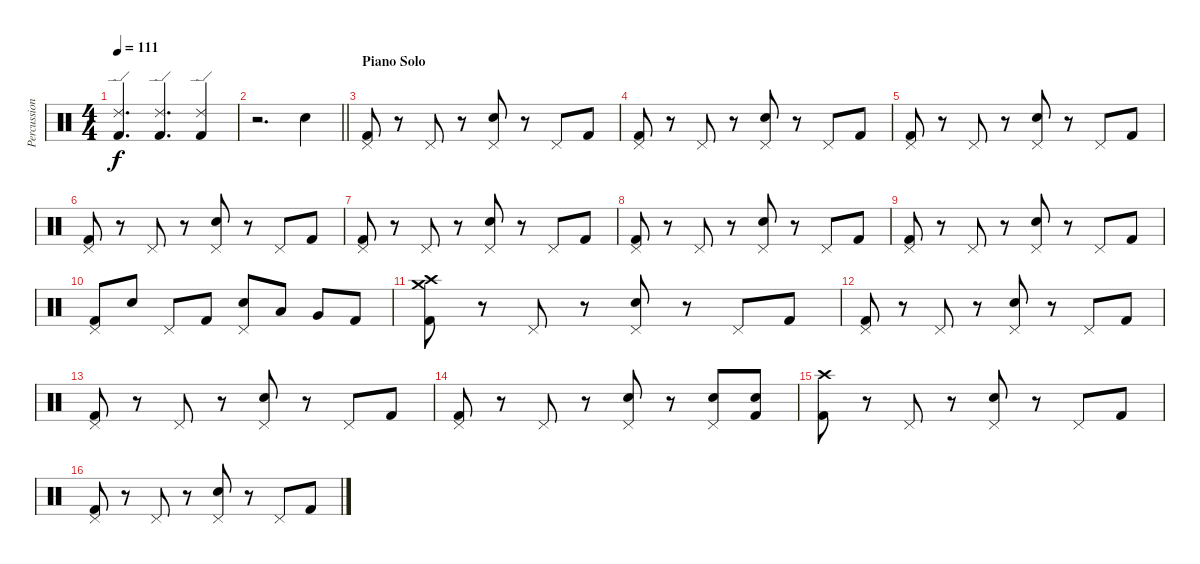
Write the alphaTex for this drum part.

\track ("Percussion" "Percussion") {instrument percussion}
\staff {score}
\articulation defaults
\ts (4 4)
\tempo 111
\clef neutral
\ks c
("Ride (edge) 2" "Kick (hit) 2").4{d dy f} ("Ride (edge) 2" "Kick (hit) 2").4{d} ("Ride (edge) 2" "Kick (hit) 2").4 |
\barLineRight lightlight
r.2{d} "Snare (hit) 2".4 |
\section ("" "Piano Solo")
("Pedal Hi-Hat (hit)" "Kick (hit) 2").8 r.8 "Pedal Hi-Hat (hit)".8 r.8 ("Pedal Hi-Hat (hit)" "Snare (hit) 2").8 r.8 "Pedal Hi-Hat (hit)".8 "Kick (hit) 2".8 |
("Pedal Hi-Hat (hit)" "Kick (hit) 2").8 r.8 "Pedal Hi-Hat (hit)".8 r.8 ("Pedal Hi-Hat (hit)" "Snare (hit) 2").8 r.8 "Pedal Hi-Hat (hit)".8 "Kick (hit) 2".8 |
("Pedal Hi-Hat (hit)" "Kick (hit) 2").8 r.8 "Pedal Hi-Hat (hit)".8 r.8 ("Pedal Hi-Hat (hit)" "Snare (hit) 2").8 r.8 "Pedal Hi-Hat (hit)".8 "Kick (hit) 2".8 |
("Pedal Hi-Hat (hit)" "Kick (hit) 2").8 r.8 "Pedal Hi-Hat (hit)".8 r.8 ("Pedal Hi-Hat (hit)" "Snare (hit) 2").8 r.8 "Pedal Hi-Hat (hit)".8 "Kick (hit) 2".8 |
("Pedal Hi-Hat (hit)" "Kick (hit) 2").8 r.8 "Pedal Hi-Hat (hit)".8 r.8 ("Pedal Hi-Hat (hit)" "Snare (hit) 2").8 r.8 "Pedal Hi-Hat (hit)".8 "Kick (hit) 2".8 |
("Pedal Hi-Hat (hit)" "Kick (hit) 2").8 r.8 "Pedal Hi-Hat (hit)".8 r.8 ("Pedal Hi-Hat (hit)" "Snare (hit) 2").8 r.8 "Pedal Hi-Hat (hit)".8 "Kick (hit) 2".8 |
("Pedal Hi-Hat (hit)" "Kick (hit) 2").8 r.8 "Pedal Hi-Hat (hit)".8 r.8 ("Pedal Hi-Hat (hit)" "Snare (hit) 2").8 r.8 "Pedal Hi-Hat (hit)".8 "Kick (hit) 2".8 |
("Pedal Hi-Hat (hit)" "Kick (hit) 2").8 "Snare (hit) 2".8 "Pedal Hi-Hat (hit)".8 "Kick (hit) 2".8 ("Pedal Hi-Hat (hit)" "Snare (hit) 2").8 "Low Tom (hit)".8 "Very Low Tom (hit)".8 "Kick (hit) 2".8 |
("Crash high (hit)" "Crash medium (hit)" "Kick (hit) 2").8 r.8 "Pedal Hi-Hat (hit)".8 r.8 ("Pedal Hi-Hat (hit)" "Snare (hit) 2").8 r.8 "Pedal Hi-Hat (hit)".8 "Kick (hit) 2".8 |
("Pedal Hi-Hat (hit)" "Kick (hit) 2").8 r.8 "Pedal Hi-Hat (hit)".8 r.8 ("Pedal Hi-Hat (hit)" "Snare (hit) 2").8 r.8 "Pedal Hi-Hat (hit)".8 "Kick (hit) 2".8 |
("Pedal Hi-Hat (hit)" "Kick (hit) 2").8 r.8 "Pedal Hi-Hat (hit)".8 r.8 ("Pedal Hi-Hat (hit)" "Snare (hit) 2").8 r.8 "Pedal Hi-Hat (hit)".8 "Kick (hit) 2".8 |
("Pedal Hi-Hat (hit)" "Kick (hit) 2").8 r.8 "Pedal Hi-Hat (hit)".8 r.8 ("Pedal Hi-Hat (hit)" "Snare (hit) 2").8 r.8 ("Pedal Hi-Hat (hit)" "Snare (hit) 2").8 ("Snare (hit) 2" "Kick (hit) 2").8 |
("Crash high (hit)" "Kick (hit) 2").8 r.8 "Pedal Hi-Hat (hit)".8 r.8 ("Pedal Hi-Hat (hit)" "Snare (hit) 2").8 r.8 "Pedal Hi-Hat (hit)".8 "Kick (hit) 2".8 |
("Pedal Hi-Hat (hit)" "Kick (hit) 2").8 r.8 "Pedal Hi-Hat (hit)".8 r.8 ("Pedal Hi-Hat (hit)" "Snare (hit) 2").8 r.8 "Pedal Hi-Hat (hit)".8 "Kick (hit) 2".8
